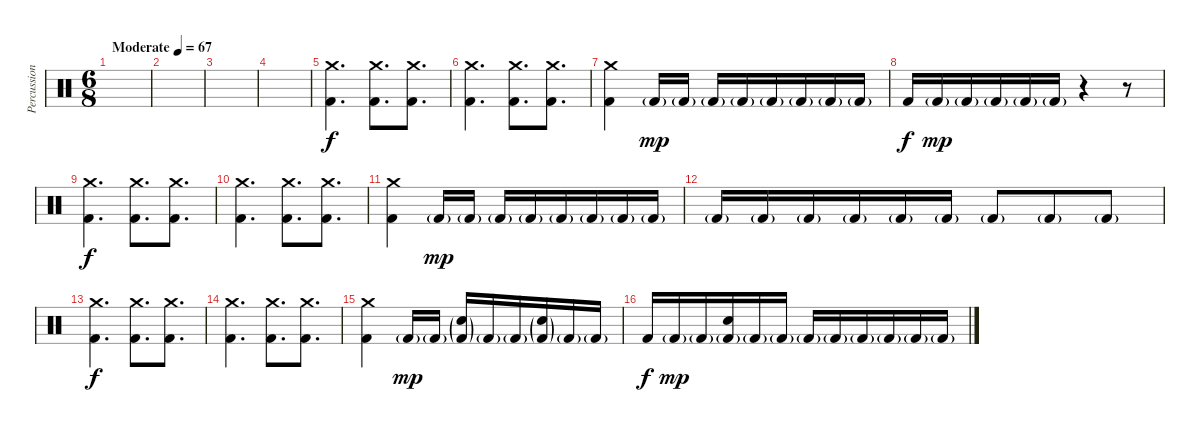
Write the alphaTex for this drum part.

\track ("Percussion" "Percussion") {instrument percussion}
\staff {score}
\articulation defaults
\ts (6 8)
\tempo (67 "Moderate")
\clef neutral
\ks c
|
|
|
|
("Crash medium (hit)" "Kick (hit) 2").4{d} ("Crash medium (hit)" "Kick (hit) 2").8{d} ("Crash medium (hit)" "Kick (hit) 2").8{d} |
("Crash medium (hit)" "Kick (hit) 2").4{d} ("Crash medium (hit)" "Kick (hit) 2").8{d} ("Crash medium (hit)" "Kick (hit) 2").8{d} |
("Crash medium (hit)" "Kick (hit) 2").4 "Kick (hit) 2"{g}.16{dy mp} "Kick (hit) 2"{g}.16 "Kick (hit) 2"{g}.16 "Kick (hit) 2"{g}.16 "Kick (hit) 2"{g}.16 "Kick (hit) 2"{g}.16 "Kick (hit) 2"{g}.16 "Kick (hit) 2"{g}.16 |
"Kick (hit) 2".16{dy f} "Kick (hit) 2"{g}.16{dy mp} "Kick (hit) 2"{g}.16 "Kick (hit) 2"{g}.16 "Kick (hit) 2"{g}.16 "Kick (hit) 2"{g}.16 r.4 r.8 |
("Crash medium (hit)" "Kick (hit) 2").4{d dy f} ("Crash medium (hit)" "Kick (hit) 2").8{d} ("Crash medium (hit)" "Kick (hit) 2").8{d} |
("Crash medium (hit)" "Kick (hit) 2").4{d} ("Crash medium (hit)" "Kick (hit) 2").8{d} ("Crash medium (hit)" "Kick (hit) 2").8{d} |
("Crash medium (hit)" "Kick (hit) 2").4 "Kick (hit) 2"{g}.16{dy mp} "Kick (hit) 2"{g}.16 "Kick (hit) 2"{g}.16 "Kick (hit) 2"{g}.16 "Kick (hit) 2"{g}.16 "Kick (hit) 2"{g}.16 "Kick (hit) 2"{g}.16 "Kick (hit) 2"{g}.16 |
"Kick (hit) 2"{g}.16 "Kick (hit) 2"{g}.16 "Kick (hit) 2"{g}.16 "Kick (hit) 2"{g}.16 "Kick (hit) 2"{g}.16 "Kick (hit) 2"{g}.16 "Kick (hit) 2"{g}.8 "Kick (hit) 2"{g}.8 "Kick (hit) 2"{g}.8 |
("Crash medium (hit)" "Kick (hit) 2").4{d dy f} ("Crash medium (hit)" "Kick (hit) 2").8{d} ("Crash medium (hit)" "Kick (hit) 2").8{d} |
("Crash medium (hit)" "Kick (hit) 2").4{d} ("Crash medium (hit)" "Kick (hit) 2").8{d} ("Crash medium (hit)" "Kick (hit) 2").8{d} |
("Crash medium (hit)" "Kick (hit) 2").4 "Kick (hit) 2"{g}.16{dy mp} "Kick (hit) 2"{g}.16 ("Electric Snare (hit)"{g} "Kick (hit) 2"{g}).16 "Kick (hit) 2"{g}.16 "Kick (hit) 2"{g}.16 ("Electric Snare (hit)"{g} "Kick (hit) 2"{g}).16 "Kick (hit) 2"{g}.16 "Kick (hit) 2"{g}.16 |
"Kick (hit) 2".16{dy f} "Kick (hit) 2"{g}.16{dy mp} "Kick (hit) 2"{g}.16 ("Electric Snare (hit)" "Kick (hit) 2"{g}).16 "Kick (hit) 2"{g}.16 "Kick (hit) 2"{g}.16 "Kick (hit) 2"{g}.16 "Kick (hit) 2"{g}.16 "Kick (hit) 2"{g}.16 "Kick (hit) 2"{g}.16 "Kick (hit) 2"{g}.16 "Kick (hit) 2"{g}.16
